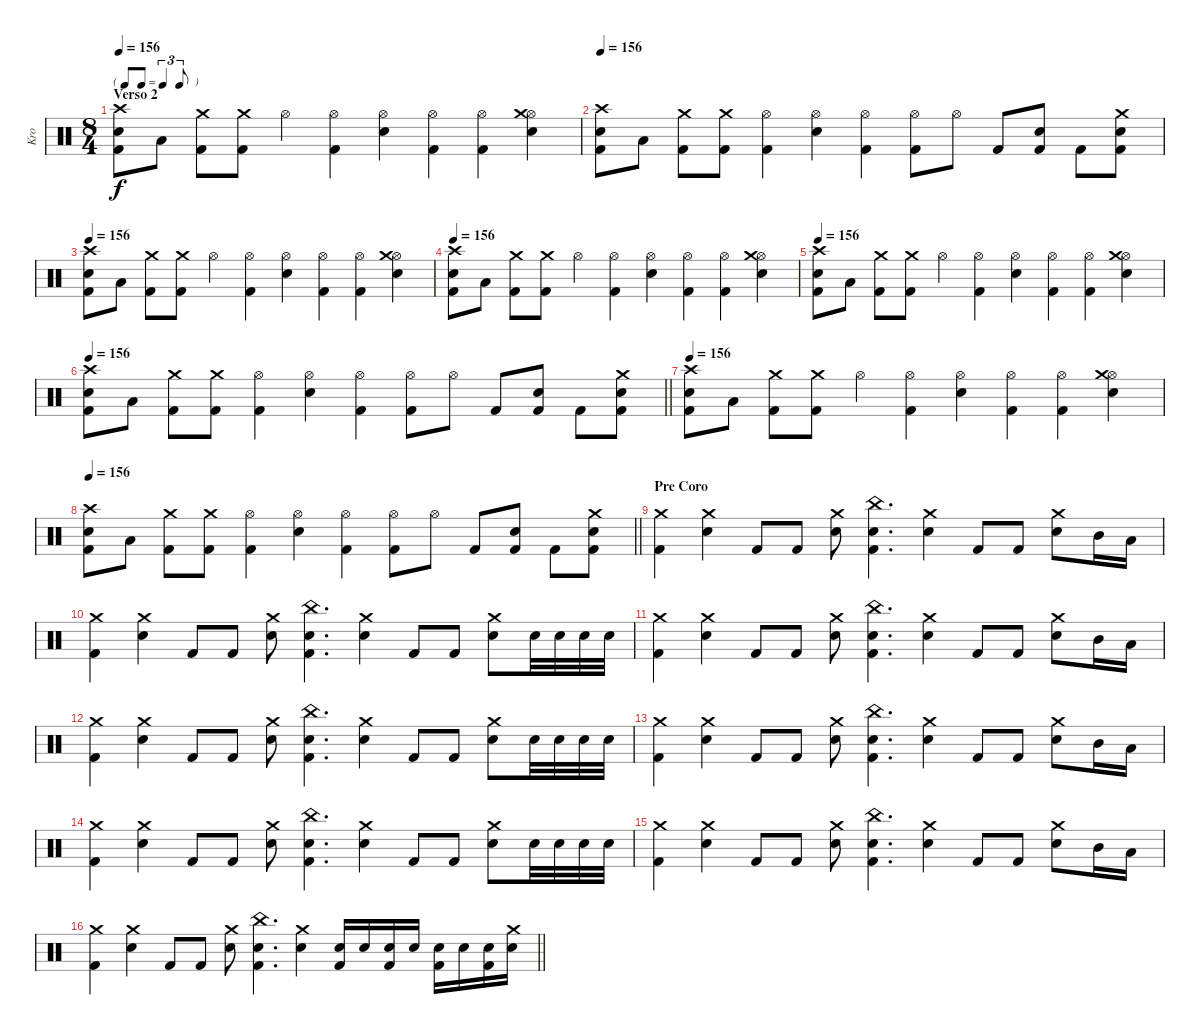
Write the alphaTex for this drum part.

\track ("Kro" "Kro") {instrument percussion}
\staff {score}
\articulation defaults
\ts (8 4)
\tf triplet8th
\section ("" "Verso 2")
\tempo 156
\clef neutral
\ks c
("Crash high (hit)" "Kick (hit) 2" "Electric Snare (hit)").8{dy f} "Low Tom (hit)".8 ("Crash medium (hit)" "Kick (hit) 2").8 ("Crash medium (hit)" "Kick (hit) 2").8 "Hi-Hat (open)".4 ("Hi-Hat (open)" "Kick (hit) 2").4 ("Hi-Hat (open)" "Electric Snare (hit)").4 ("Hi-Hat (open)" "Kick (hit) 2").4 ("Hi-Hat (open)" "Kick (hit) 2").4 ("Hi-Hat (open)" "Crash medium (hit)" "Electric Snare (hit)").4 |
\tempo 156
("Crash high (hit)" "Kick (hit) 2" "Electric Snare (hit)").8 "Low Tom (hit)".8 ("Crash medium (hit)" "Kick (hit) 2").8 ("Crash medium (hit)" "Kick (hit) 2").8 ("Hi-Hat (open)" "Kick (hit) 2").4 ("Hi-Hat (open)" "Electric Snare (hit)").4 ("Hi-Hat (open)" "Kick (hit) 2").4 ("Hi-Hat (open)" "Kick (hit) 2").8 "Hi-Hat (open)".8 "Kick (hit) 2".8 ("Electric Snare (hit)" "Kick (hit) 2").8 "Kick (hit) 2".8 ("Crash medium (hit)" "Electric Snare (hit)" "Kick (hit) 2").8 |
\tempo 156
("Crash high (hit)" "Kick (hit) 2" "Electric Snare (hit)").8 "Low Tom (hit)".8 ("Crash medium (hit)" "Kick (hit) 2").8 ("Crash medium (hit)" "Kick (hit) 2").8 "Hi-Hat (open)".4 ("Hi-Hat (open)" "Kick (hit) 2").4 ("Hi-Hat (open)" "Electric Snare (hit)").4 ("Hi-Hat (open)" "Kick (hit) 2").4 ("Hi-Hat (open)" "Kick (hit) 2").4 ("Hi-Hat (open)" "Crash medium (hit)" "Electric Snare (hit)").4 |
\tempo 156
("Crash high (hit)" "Kick (hit) 2" "Electric Snare (hit)").8 "Low Tom (hit)".8 ("Crash medium (hit)" "Kick (hit) 2").8 ("Crash medium (hit)" "Kick (hit) 2").8 "Hi-Hat (open)".4 ("Hi-Hat (open)" "Kick (hit) 2").4 ("Hi-Hat (open)" "Electric Snare (hit)").4 ("Hi-Hat (open)" "Kick (hit) 2").4 ("Hi-Hat (open)" "Kick (hit) 2").4 ("Hi-Hat (open)" "Crash medium (hit)" "Electric Snare (hit)").4 |
\tempo 156
("Crash high (hit)" "Kick (hit) 2" "Electric Snare (hit)").8 "Low Tom (hit)".8 ("Crash medium (hit)" "Kick (hit) 2").8 ("Crash medium (hit)" "Kick (hit) 2").8 "Hi-Hat (open)".4 ("Hi-Hat (open)" "Kick (hit) 2").4 ("Hi-Hat (open)" "Electric Snare (hit)").4 ("Hi-Hat (open)" "Kick (hit) 2").4 ("Hi-Hat (open)" "Kick (hit) 2").4 ("Hi-Hat (open)" "Crash medium (hit)" "Electric Snare (hit)").4 |
\tempo 156
\barLineRight lightlight
("Crash high (hit)" "Kick (hit) 2" "Electric Snare (hit)").8 "Low Tom (hit)".8 ("Crash medium (hit)" "Kick (hit) 2").8 ("Crash medium (hit)" "Kick (hit) 2").8 ("Hi-Hat (open)" "Kick (hit) 2").4 ("Hi-Hat (open)" "Electric Snare (hit)").4 ("Hi-Hat (open)" "Kick (hit) 2").4 ("Hi-Hat (open)" "Kick (hit) 2").8 "Hi-Hat (open)".8 "Kick (hit) 2".8 ("Electric Snare (hit)" "Kick (hit) 2").8 "Kick (hit) 2".8 ("Crash medium (hit)" "Electric Snare (hit)" "Kick (hit) 2").8 |
\tempo 156
("Crash high (hit)" "Kick (hit) 2" "Electric Snare (hit)").8 "Low Tom (hit)".8 ("Crash medium (hit)" "Kick (hit) 2").8 ("Crash medium (hit)" "Kick (hit) 2").8 "Hi-Hat (open)".4 ("Hi-Hat (open)" "Kick (hit) 2").4 ("Hi-Hat (open)" "Electric Snare (hit)").4 ("Hi-Hat (open)" "Kick (hit) 2").4 ("Hi-Hat (open)" "Kick (hit) 2").4 ("Hi-Hat (open)" "Crash medium (hit)" "Electric Snare (hit)").4 |
\tempo 156
\barLineRight lightlight
("Crash high (hit)" "Kick (hit) 2" "Electric Snare (hit)").8 "Low Tom (hit)".8 ("Crash medium (hit)" "Kick (hit) 2").8 ("Crash medium (hit)" "Kick (hit) 2").8 ("Hi-Hat (open)" "Kick (hit) 2").4 ("Hi-Hat (open)" "Electric Snare (hit)").4 ("Hi-Hat (open)" "Kick (hit) 2").4 ("Hi-Hat (open)" "Kick (hit) 2").8 "Hi-Hat (open)".8 "Kick (hit) 2".8 ("Electric Snare (hit)" "Kick (hit) 2").8 "Kick (hit) 2".8 ("Crash medium (hit)" "Electric Snare (hit)" "Kick (hit) 2").8 |
\section ("" "Pre Coro")
("Crash medium (hit)" "Kick (hit) 2").4 ("Crash medium (hit)" "Electric Snare (hit)").4 "Kick (hit) 2".8 "Kick (hit) 2".8 ("Crash medium (hit)" "Electric Snare (hit)").8 ("China (hit)" "Electric Snare (hit)" "Kick (hit) 2").4{d} ("Crash medium (hit)" "Electric Snare (hit)").4 "Kick (hit) 2".8 "Kick (hit) 2".8 ("Crash medium (hit)" "Electric Snare (hit)").8 "Mid Tom (hit)".16 "Low Tom (hit)".16 |
("Crash medium (hit)" "Kick (hit) 2").4 ("Crash medium (hit)" "Electric Snare (hit)").4 "Kick (hit) 2".8 "Kick (hit) 2".8 ("Crash medium (hit)" "Electric Snare (hit)").8 ("China (hit)" "Electric Snare (hit)" "Kick (hit) 2").4{d} ("Crash medium (hit)" "Electric Snare (hit)").4 "Kick (hit) 2".8 "Kick (hit) 2".8 ("Crash medium (hit)" "Electric Snare (hit)").8 "Electric Snare (hit)".32 "Electric Snare (hit)".32 "Electric Snare (hit)".32 "Electric Snare (hit)".32 |
("Crash medium (hit)" "Kick (hit) 2").4 ("Crash medium (hit)" "Electric Snare (hit)").4 "Kick (hit) 2".8 "Kick (hit) 2".8 ("Crash medium (hit)" "Electric Snare (hit)").8 ("China (hit)" "Electric Snare (hit)" "Kick (hit) 2").4{d} ("Crash medium (hit)" "Electric Snare (hit)").4 "Kick (hit) 2".8 "Kick (hit) 2".8 ("Crash medium (hit)" "Electric Snare (hit)").8 "Mid Tom (hit)".16 "Low Tom (hit)".16 |
("Crash medium (hit)" "Kick (hit) 2").4 ("Crash medium (hit)" "Electric Snare (hit)").4 "Kick (hit) 2".8 "Kick (hit) 2".8 ("Crash medium (hit)" "Electric Snare (hit)").8 ("China (hit)" "Electric Snare (hit)" "Kick (hit) 2").4{d} ("Crash medium (hit)" "Electric Snare (hit)").4 "Kick (hit) 2".8 "Kick (hit) 2".8 ("Crash medium (hit)" "Electric Snare (hit)").8 "Electric Snare (hit)".32 "Electric Snare (hit)".32 "Electric Snare (hit)".32 "Electric Snare (hit)".32 |
("Crash medium (hit)" "Kick (hit) 2").4 ("Crash medium (hit)" "Electric Snare (hit)").4 "Kick (hit) 2".8 "Kick (hit) 2".8 ("Crash medium (hit)" "Electric Snare (hit)").8 ("China (hit)" "Electric Snare (hit)" "Kick (hit) 2").4{d} ("Crash medium (hit)" "Electric Snare (hit)").4 "Kick (hit) 2".8 "Kick (hit) 2".8 ("Crash medium (hit)" "Electric Snare (hit)").8 "Mid Tom (hit)".16 "Low Tom (hit)".16 |
("Crash medium (hit)" "Kick (hit) 2").4 ("Crash medium (hit)" "Electric Snare (hit)").4 "Kick (hit) 2".8 "Kick (hit) 2".8 ("Crash medium (hit)" "Electric Snare (hit)").8 ("China (hit)" "Electric Snare (hit)" "Kick (hit) 2").4{d} ("Crash medium (hit)" "Electric Snare (hit)").4 "Kick (hit) 2".8 "Kick (hit) 2".8 ("Crash medium (hit)" "Electric Snare (hit)").8 "Electric Snare (hit)".32 "Electric Snare (hit)".32 "Electric Snare (hit)".32 "Electric Snare (hit)".32 |
("Crash medium (hit)" "Kick (hit) 2").4 ("Crash medium (hit)" "Electric Snare (hit)").4 "Kick (hit) 2".8 "Kick (hit) 2".8 ("Crash medium (hit)" "Electric Snare (hit)").8 ("China (hit)" "Electric Snare (hit)" "Kick (hit) 2").4{d} ("Crash medium (hit)" "Electric Snare (hit)").4 "Kick (hit) 2".8 "Kick (hit) 2".8 ("Crash medium (hit)" "Electric Snare (hit)").8 "Mid Tom (hit)".16 "Low Tom (hit)".16 |
\barLineRight lightlight
("Crash medium (hit)" "Kick (hit) 2").4 ("Crash medium (hit)" "Electric Snare (hit)").4 "Kick (hit) 2".8 "Kick (hit) 2".8 ("Crash medium (hit)" "Electric Snare (hit)").8 ("China (hit)" "Electric Snare (hit)" "Kick (hit) 2").4{d} ("Crash medium (hit)" "Electric Snare (hit)").4 ("Electric Snare (hit)" "Kick (hit) 2").16 "Electric Snare (hit)".16 ("Electric Snare (hit)" "Kick (hit) 2").16 "Electric Snare (hit)".16 ("Electric Snare (hit)" "Kick (hit) 2").16 "Electric Snare (hit)".16 ("Electric Snare (hit)" "Kick (hit) 2").16 ("Crash medium (hit)" "Electric Snare (hit)").16
